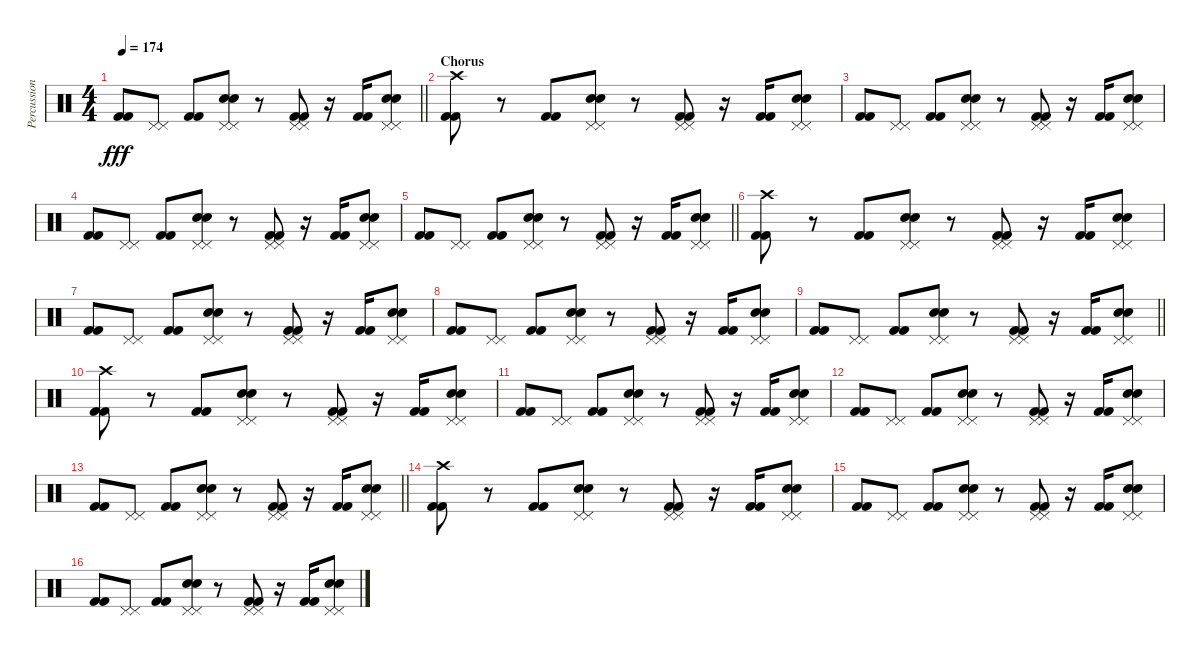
\track ("Percussion" "Percussion") {instrument percussion}
\staff {score}
\articulation defaults
\ts (4 4)
\tempo 174
\clef neutral
\barLineRight lightlight
\ks c
("Kick (hit) 2" "Kick (hit) 2").8{dy fff} ("Pedal Hi-Hat (hit)" "Pedal Hi-Hat (hit)").8 ("Kick (hit) 2" "Kick (hit) 2").8 ("Pedal Hi-Hat (hit)" "Pedal Hi-Hat (hit)" "Electric Snare (hit)" "Electric Snare (hit)").8 r.8 ("Pedal Hi-Hat (hit)" "Pedal Hi-Hat (hit)" "Kick (hit) 2" "Kick (hit) 2").8 r.16 ("Kick (hit) 2" "Kick (hit) 2").16 ("Pedal Hi-Hat (hit)" "Pedal Hi-Hat (hit)" "Electric Snare (hit)" "Electric Snare (hit)").8 |
\section ("" "Chorus")
("Crash high (hit)" "Kick (hit) 2" "Kick (hit) 2").8 r.8 ("Kick (hit) 2" "Kick (hit) 2").8 ("Pedal Hi-Hat (hit)" "Pedal Hi-Hat (hit)" "Electric Snare (hit)" "Electric Snare (hit)").8 r.8 ("Pedal Hi-Hat (hit)" "Pedal Hi-Hat (hit)" "Kick (hit) 2" "Kick (hit) 2").8 r.16 ("Kick (hit) 2" "Kick (hit) 2").16 ("Pedal Hi-Hat (hit)" "Pedal Hi-Hat (hit)" "Electric Snare (hit)" "Electric Snare (hit)").8 |
("Kick (hit) 2" "Kick (hit) 2").8 ("Pedal Hi-Hat (hit)" "Pedal Hi-Hat (hit)").8 ("Kick (hit) 2" "Kick (hit) 2").8 ("Pedal Hi-Hat (hit)" "Pedal Hi-Hat (hit)" "Electric Snare (hit)" "Electric Snare (hit)").8 r.8 ("Pedal Hi-Hat (hit)" "Pedal Hi-Hat (hit)" "Kick (hit) 2" "Kick (hit) 2").8 r.16 ("Kick (hit) 2" "Kick (hit) 2").16 ("Pedal Hi-Hat (hit)" "Pedal Hi-Hat (hit)" "Electric Snare (hit)" "Electric Snare (hit)").8 |
("Kick (hit) 2" "Kick (hit) 2").8 ("Pedal Hi-Hat (hit)" "Pedal Hi-Hat (hit)").8 ("Kick (hit) 2" "Kick (hit) 2").8 ("Pedal Hi-Hat (hit)" "Pedal Hi-Hat (hit)" "Electric Snare (hit)" "Electric Snare (hit)").8 r.8 ("Pedal Hi-Hat (hit)" "Pedal Hi-Hat (hit)" "Kick (hit) 2" "Kick (hit) 2").8 r.16 ("Kick (hit) 2" "Kick (hit) 2").16 ("Pedal Hi-Hat (hit)" "Pedal Hi-Hat (hit)" "Electric Snare (hit)" "Electric Snare (hit)").8 |
\barLineRight lightlight
("Kick (hit) 2" "Kick (hit) 2").8 ("Pedal Hi-Hat (hit)" "Pedal Hi-Hat (hit)").8 ("Kick (hit) 2" "Kick (hit) 2").8 ("Pedal Hi-Hat (hit)" "Pedal Hi-Hat (hit)" "Electric Snare (hit)" "Electric Snare (hit)").8 r.8 ("Pedal Hi-Hat (hit)" "Pedal Hi-Hat (hit)" "Kick (hit) 2" "Kick (hit) 2").8 r.16 ("Kick (hit) 2" "Kick (hit) 2").16 ("Pedal Hi-Hat (hit)" "Pedal Hi-Hat (hit)" "Electric Snare (hit)" "Electric Snare (hit)").8 |
("Crash high (hit)" "Kick (hit) 2" "Kick (hit) 2").8 r.8 ("Kick (hit) 2" "Kick (hit) 2").8 ("Pedal Hi-Hat (hit)" "Pedal Hi-Hat (hit)" "Electric Snare (hit)" "Electric Snare (hit)").8 r.8 ("Pedal Hi-Hat (hit)" "Pedal Hi-Hat (hit)" "Kick (hit) 2" "Kick (hit) 2").8 r.16 ("Kick (hit) 2" "Kick (hit) 2").16 ("Pedal Hi-Hat (hit)" "Pedal Hi-Hat (hit)" "Electric Snare (hit)" "Electric Snare (hit)").8 |
("Kick (hit) 2" "Kick (hit) 2").8 ("Pedal Hi-Hat (hit)" "Pedal Hi-Hat (hit)").8 ("Kick (hit) 2" "Kick (hit) 2").8 ("Pedal Hi-Hat (hit)" "Pedal Hi-Hat (hit)" "Electric Snare (hit)" "Electric Snare (hit)").8 r.8 ("Pedal Hi-Hat (hit)" "Pedal Hi-Hat (hit)" "Kick (hit) 2" "Kick (hit) 2").8 r.16 ("Kick (hit) 2" "Kick (hit) 2").16 ("Pedal Hi-Hat (hit)" "Pedal Hi-Hat (hit)" "Electric Snare (hit)" "Electric Snare (hit)").8 |
("Kick (hit) 2" "Kick (hit) 2").8 ("Pedal Hi-Hat (hit)" "Pedal Hi-Hat (hit)").8 ("Kick (hit) 2" "Kick (hit) 2").8 ("Pedal Hi-Hat (hit)" "Pedal Hi-Hat (hit)" "Electric Snare (hit)" "Electric Snare (hit)").8 r.8 ("Pedal Hi-Hat (hit)" "Pedal Hi-Hat (hit)" "Kick (hit) 2" "Kick (hit) 2").8 r.16 ("Kick (hit) 2" "Kick (hit) 2").16 ("Pedal Hi-Hat (hit)" "Pedal Hi-Hat (hit)" "Electric Snare (hit)" "Electric Snare (hit)").8 |
\barLineRight lightlight
("Kick (hit) 2" "Kick (hit) 2").8 ("Pedal Hi-Hat (hit)" "Pedal Hi-Hat (hit)").8 ("Kick (hit) 2" "Kick (hit) 2").8 ("Pedal Hi-Hat (hit)" "Pedal Hi-Hat (hit)" "Electric Snare (hit)" "Electric Snare (hit)").8 r.8 ("Pedal Hi-Hat (hit)" "Pedal Hi-Hat (hit)" "Kick (hit) 2" "Kick (hit) 2").8 r.16 ("Kick (hit) 2" "Kick (hit) 2").16 ("Pedal Hi-Hat (hit)" "Pedal Hi-Hat (hit)" "Electric Snare (hit)" "Electric Snare (hit)").8 |
("Crash high (hit)" "Kick (hit) 2" "Kick (hit) 2").8 r.8 ("Kick (hit) 2" "Kick (hit) 2").8 ("Pedal Hi-Hat (hit)" "Pedal Hi-Hat (hit)" "Electric Snare (hit)" "Electric Snare (hit)").8 r.8 ("Pedal Hi-Hat (hit)" "Pedal Hi-Hat (hit)" "Kick (hit) 2" "Kick (hit) 2").8 r.16 ("Kick (hit) 2" "Kick (hit) 2").16 ("Pedal Hi-Hat (hit)" "Pedal Hi-Hat (hit)" "Electric Snare (hit)" "Electric Snare (hit)").8 |
("Kick (hit) 2" "Kick (hit) 2").8 ("Pedal Hi-Hat (hit)" "Pedal Hi-Hat (hit)").8 ("Kick (hit) 2" "Kick (hit) 2").8 ("Pedal Hi-Hat (hit)" "Pedal Hi-Hat (hit)" "Electric Snare (hit)" "Electric Snare (hit)").8 r.8 ("Pedal Hi-Hat (hit)" "Pedal Hi-Hat (hit)" "Kick (hit) 2" "Kick (hit) 2").8 r.16 ("Kick (hit) 2" "Kick (hit) 2").16 ("Pedal Hi-Hat (hit)" "Pedal Hi-Hat (hit)" "Electric Snare (hit)" "Electric Snare (hit)").8 |
("Kick (hit) 2" "Kick (hit) 2").8 ("Pedal Hi-Hat (hit)" "Pedal Hi-Hat (hit)").8 ("Kick (hit) 2" "Kick (hit) 2").8 ("Pedal Hi-Hat (hit)" "Pedal Hi-Hat (hit)" "Electric Snare (hit)" "Electric Snare (hit)").8 r.8 ("Pedal Hi-Hat (hit)" "Pedal Hi-Hat (hit)" "Kick (hit) 2" "Kick (hit) 2").8 r.16 ("Kick (hit) 2" "Kick (hit) 2").16 ("Pedal Hi-Hat (hit)" "Pedal Hi-Hat (hit)" "Electric Snare (hit)" "Electric Snare (hit)").8 |
\barLineRight lightlight
("Kick (hit) 2" "Kick (hit) 2").8 ("Pedal Hi-Hat (hit)" "Pedal Hi-Hat (hit)").8 ("Kick (hit) 2" "Kick (hit) 2").8 ("Pedal Hi-Hat (hit)" "Pedal Hi-Hat (hit)" "Electric Snare (hit)" "Electric Snare (hit)").8 r.8 ("Pedal Hi-Hat (hit)" "Pedal Hi-Hat (hit)" "Kick (hit) 2" "Kick (hit) 2").8 r.16 ("Kick (hit) 2" "Kick (hit) 2").16 ("Pedal Hi-Hat (hit)" "Pedal Hi-Hat (hit)" "Electric Snare (hit)" "Electric Snare (hit)").8 |
("Crash high (hit)" "Kick (hit) 2" "Kick (hit) 2").8 r.8 ("Kick (hit) 2" "Kick (hit) 2").8 ("Pedal Hi-Hat (hit)" "Pedal Hi-Hat (hit)" "Electric Snare (hit)" "Electric Snare (hit)").8 r.8 ("Pedal Hi-Hat (hit)" "Pedal Hi-Hat (hit)" "Kick (hit) 2" "Kick (hit) 2").8 r.16 ("Kick (hit) 2" "Kick (hit) 2").16 ("Pedal Hi-Hat (hit)" "Pedal Hi-Hat (hit)" "Electric Snare (hit)" "Electric Snare (hit)").8 |
("Kick (hit) 2" "Kick (hit) 2").8 ("Pedal Hi-Hat (hit)" "Pedal Hi-Hat (hit)").8 ("Kick (hit) 2" "Kick (hit) 2").8 ("Pedal Hi-Hat (hit)" "Pedal Hi-Hat (hit)" "Electric Snare (hit)" "Electric Snare (hit)").8 r.8 ("Pedal Hi-Hat (hit)" "Pedal Hi-Hat (hit)" "Kick (hit) 2" "Kick (hit) 2").8 r.16 ("Kick (hit) 2" "Kick (hit) 2").16 ("Pedal Hi-Hat (hit)" "Pedal Hi-Hat (hit)" "Electric Snare (hit)" "Electric Snare (hit)").8 |
("Kick (hit) 2" "Kick (hit) 2").8 ("Pedal Hi-Hat (hit)" "Pedal Hi-Hat (hit)").8 ("Kick (hit) 2" "Kick (hit) 2").8 ("Pedal Hi-Hat (hit)" "Pedal Hi-Hat (hit)" "Electric Snare (hit)" "Electric Snare (hit)").8 r.8 ("Pedal Hi-Hat (hit)" "Pedal Hi-Hat (hit)" "Kick (hit) 2" "Kick (hit) 2").8 r.16 ("Kick (hit) 2" "Kick (hit) 2").16 ("Pedal Hi-Hat (hit)" "Pedal Hi-Hat (hit)" "Electric Snare (hit)" "Electric Snare (hit)").8
